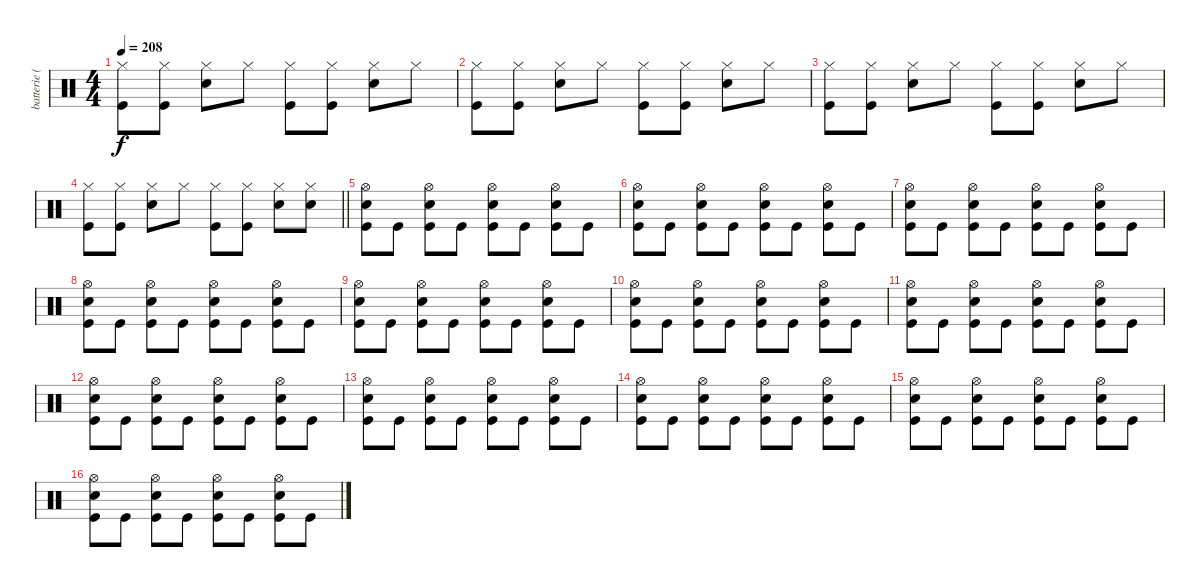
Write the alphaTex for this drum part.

\track ("batterie ( Guillaume ) " "batterie (") {instrument percussion}
\staff {score}
\articulation defaults
\ts (4 4)
\tempo 208
\clef neutral
\ks c
("Hi-Hat (closed)" "Kick (hit)").8{dy f} ("Hi-Hat (closed)" "Kick (hit)").8 ("Hi-Hat (closed)" "Electric Snare (hit)").8 "Hi-Hat (closed)".8 ("Hi-Hat (closed)" "Kick (hit)").8 ("Hi-Hat (closed)" "Kick (hit)").8 ("Hi-Hat (closed)" "Electric Snare (hit)").8 "Hi-Hat (closed)".8 |
("Hi-Hat (closed)" "Kick (hit)").8 ("Hi-Hat (closed)" "Kick (hit)").8 ("Hi-Hat (closed)" "Electric Snare (hit)").8 "Hi-Hat (closed)".8 ("Hi-Hat (closed)" "Kick (hit)").8 ("Hi-Hat (closed)" "Kick (hit)").8 ("Hi-Hat (closed)" "Electric Snare (hit)").8 "Hi-Hat (closed)".8 |
("Hi-Hat (closed)" "Kick (hit)").8 ("Hi-Hat (closed)" "Kick (hit)").8 ("Hi-Hat (closed)" "Electric Snare (hit)").8 "Hi-Hat (closed)".8 ("Hi-Hat (closed)" "Kick (hit)").8 ("Hi-Hat (closed)" "Kick (hit)").8 ("Hi-Hat (closed)" "Electric Snare (hit)").8 "Hi-Hat (closed)".8 |
\barLineRight lightlight
("Hi-Hat (closed)" "Kick (hit)").8 ("Hi-Hat (closed)" "Kick (hit)").8 ("Hi-Hat (closed)" "Electric Snare (hit)").8 "Hi-Hat (closed)".8 ("Hi-Hat (closed)" "Kick (hit)").8 ("Hi-Hat (closed)" "Kick (hit)").8 ("Hi-Hat (closed)" "Electric Snare (hit)").8 ("Hi-Hat (closed)" "Electric Snare (hit)").8 |
("Hi-Hat (open)" "Electric Snare (hit)" "Kick (hit)").8 "Kick (hit)".8 ("Hi-Hat (open)" "Electric Snare (hit)" "Kick (hit)").8 "Kick (hit)".8 ("Hi-Hat (open)" "Electric Snare (hit)" "Kick (hit)").8 "Kick (hit)".8 ("Hi-Hat (open)" "Electric Snare (hit)" "Kick (hit)").8 "Kick (hit)".8 |
("Hi-Hat (open)" "Electric Snare (hit)" "Kick (hit)").8 "Kick (hit)".8 ("Hi-Hat (open)" "Electric Snare (hit)" "Kick (hit)").8 "Kick (hit)".8 ("Hi-Hat (open)" "Electric Snare (hit)" "Kick (hit)").8 "Kick (hit)".8 ("Hi-Hat (open)" "Electric Snare (hit)" "Kick (hit)").8 "Kick (hit)".8 |
("Hi-Hat (open)" "Electric Snare (hit)" "Kick (hit)").8 "Kick (hit)".8 ("Hi-Hat (open)" "Electric Snare (hit)" "Kick (hit)").8 "Kick (hit)".8 ("Hi-Hat (open)" "Electric Snare (hit)" "Kick (hit)").8 "Kick (hit)".8 ("Hi-Hat (open)" "Electric Snare (hit)" "Kick (hit)").8 "Kick (hit)".8 |
("Hi-Hat (open)" "Electric Snare (hit)" "Kick (hit)").8 "Kick (hit)".8 ("Hi-Hat (open)" "Electric Snare (hit)" "Kick (hit)").8 "Kick (hit)".8 ("Hi-Hat (open)" "Electric Snare (hit)" "Kick (hit)").8 "Kick (hit)".8 ("Hi-Hat (open)" "Electric Snare (hit)" "Kick (hit)").8 "Kick (hit)".8 |
("Hi-Hat (open)" "Electric Snare (hit)" "Kick (hit)").8 "Kick (hit)".8 ("Hi-Hat (open)" "Electric Snare (hit)" "Kick (hit)").8 "Kick (hit)".8 ("Hi-Hat (open)" "Electric Snare (hit)" "Kick (hit)").8 "Kick (hit)".8 ("Hi-Hat (open)" "Electric Snare (hit)" "Kick (hit)").8 "Kick (hit)".8 |
("Hi-Hat (open)" "Electric Snare (hit)" "Kick (hit)").8 "Kick (hit)".8 ("Hi-Hat (open)" "Electric Snare (hit)" "Kick (hit)").8 "Kick (hit)".8 ("Hi-Hat (open)" "Electric Snare (hit)" "Kick (hit)").8 "Kick (hit)".8 ("Hi-Hat (open)" "Electric Snare (hit)" "Kick (hit)").8 "Kick (hit)".8 |
("Hi-Hat (open)" "Electric Snare (hit)" "Kick (hit)").8 "Kick (hit)".8 ("Hi-Hat (open)" "Electric Snare (hit)" "Kick (hit)").8 "Kick (hit)".8 ("Hi-Hat (open)" "Electric Snare (hit)" "Kick (hit)").8 "Kick (hit)".8 ("Hi-Hat (open)" "Electric Snare (hit)" "Kick (hit)").8 "Kick (hit)".8 |
("Hi-Hat (open)" "Electric Snare (hit)" "Kick (hit)").8 "Kick (hit)".8 ("Hi-Hat (open)" "Electric Snare (hit)" "Kick (hit)").8 "Kick (hit)".8 ("Hi-Hat (open)" "Electric Snare (hit)" "Kick (hit)").8 "Kick (hit)".8 ("Hi-Hat (open)" "Electric Snare (hit)" "Kick (hit)").8 "Kick (hit)".8 |
("Hi-Hat (open)" "Electric Snare (hit)" "Kick (hit)").8 "Kick (hit)".8 ("Hi-Hat (open)" "Electric Snare (hit)" "Kick (hit)").8 "Kick (hit)".8 ("Hi-Hat (open)" "Electric Snare (hit)" "Kick (hit)").8 "Kick (hit)".8 ("Hi-Hat (open)" "Electric Snare (hit)" "Kick (hit)").8 "Kick (hit)".8 |
("Hi-Hat (open)" "Electric Snare (hit)" "Kick (hit)").8 "Kick (hit)".8 ("Hi-Hat (open)" "Electric Snare (hit)" "Kick (hit)").8 "Kick (hit)".8 ("Hi-Hat (open)" "Electric Snare (hit)" "Kick (hit)").8 "Kick (hit)".8 ("Hi-Hat (open)" "Electric Snare (hit)" "Kick (hit)").8 "Kick (hit)".8 |
("Hi-Hat (open)" "Electric Snare (hit)" "Kick (hit)").8 "Kick (hit)".8 ("Hi-Hat (open)" "Electric Snare (hit)" "Kick (hit)").8 "Kick (hit)".8 ("Hi-Hat (open)" "Electric Snare (hit)" "Kick (hit)").8 "Kick (hit)".8 ("Hi-Hat (open)" "Electric Snare (hit)" "Kick (hit)").8 "Kick (hit)".8 |
("Hi-Hat (open)" "Electric Snare (hit)" "Kick (hit)").8 "Kick (hit)".8 ("Hi-Hat (open)" "Electric Snare (hit)" "Kick (hit)").8 "Kick (hit)".8 ("Hi-Hat (open)" "Electric Snare (hit)" "Kick (hit)").8 "Kick (hit)".8 ("Hi-Hat (open)" "Electric Snare (hit)" "Kick (hit)").8 "Kick (hit)".8
